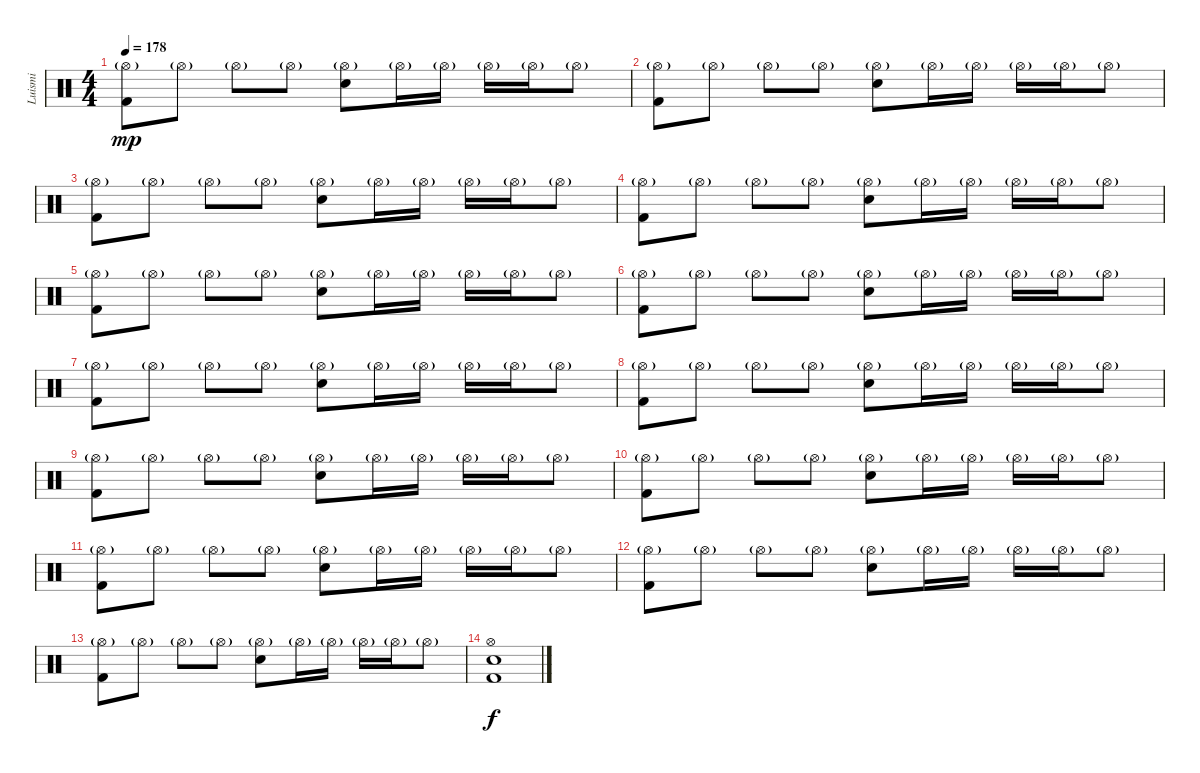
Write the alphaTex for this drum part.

\track ("Luismi" "Luismi") {instrument percussion}
\staff {score}
\articulation defaults
\ts (4 4)
\tempo 178
\clef neutral
\ks c
("Hi-Hat (open)"{g} "Kick (hit) 2").8{dy mp} "Hi-Hat (open)"{g}.8 "Hi-Hat (open)"{g}.8 "Hi-Hat (open)"{g}.8 ("Hi-Hat (open)"{g} "Snare (hit) 2").8 "Hi-Hat (open)"{g}.16 "Hi-Hat (open)"{g}.16 "Hi-Hat (open)"{g}.16 "Hi-Hat (open)"{g}.16 "Hi-Hat (open)"{g}.8 |
("Hi-Hat (open)"{g} "Kick (hit) 2").8 "Hi-Hat (open)"{g}.8 "Hi-Hat (open)"{g}.8 "Hi-Hat (open)"{g}.8 ("Hi-Hat (open)"{g} "Snare (hit) 2").8 "Hi-Hat (open)"{g}.16 "Hi-Hat (open)"{g}.16 "Hi-Hat (open)"{g}.16 "Hi-Hat (open)"{g}.16 "Hi-Hat (open)"{g}.8 |
("Hi-Hat (open)"{g} "Kick (hit) 2").8 "Hi-Hat (open)"{g}.8 "Hi-Hat (open)"{g}.8 "Hi-Hat (open)"{g}.8 ("Hi-Hat (open)"{g} "Snare (hit) 2").8 "Hi-Hat (open)"{g}.16 "Hi-Hat (open)"{g}.16 "Hi-Hat (open)"{g}.16 "Hi-Hat (open)"{g}.16 "Hi-Hat (open)"{g}.8 |
("Hi-Hat (open)"{g} "Kick (hit) 2").8 "Hi-Hat (open)"{g}.8 "Hi-Hat (open)"{g}.8 "Hi-Hat (open)"{g}.8 ("Hi-Hat (open)"{g} "Snare (hit) 2").8 "Hi-Hat (open)"{g}.16 "Hi-Hat (open)"{g}.16 "Hi-Hat (open)"{g}.16 "Hi-Hat (open)"{g}.16 "Hi-Hat (open)"{g}.8 |
("Hi-Hat (open)"{g} "Kick (hit) 2").8 "Hi-Hat (open)"{g}.8 "Hi-Hat (open)"{g}.8 "Hi-Hat (open)"{g}.8 ("Hi-Hat (open)"{g} "Snare (hit) 2").8 "Hi-Hat (open)"{g}.16 "Hi-Hat (open)"{g}.16 "Hi-Hat (open)"{g}.16 "Hi-Hat (open)"{g}.16 "Hi-Hat (open)"{g}.8 |
("Hi-Hat (open)"{g} "Kick (hit) 2").8 "Hi-Hat (open)"{g}.8 "Hi-Hat (open)"{g}.8 "Hi-Hat (open)"{g}.8 ("Hi-Hat (open)"{g} "Snare (hit) 2").8 "Hi-Hat (open)"{g}.16 "Hi-Hat (open)"{g}.16 "Hi-Hat (open)"{g}.16 "Hi-Hat (open)"{g}.16 "Hi-Hat (open)"{g}.8 |
("Hi-Hat (open)"{g} "Kick (hit) 2").8 "Hi-Hat (open)"{g}.8 "Hi-Hat (open)"{g}.8 "Hi-Hat (open)"{g}.8 ("Hi-Hat (open)"{g} "Snare (hit) 2").8 "Hi-Hat (open)"{g}.16 "Hi-Hat (open)"{g}.16 "Hi-Hat (open)"{g}.16 "Hi-Hat (open)"{g}.16 "Hi-Hat (open)"{g}.8 |
("Hi-Hat (open)"{g} "Kick (hit) 2").8 "Hi-Hat (open)"{g}.8 "Hi-Hat (open)"{g}.8 "Hi-Hat (open)"{g}.8 ("Hi-Hat (open)"{g} "Snare (hit) 2").8 "Hi-Hat (open)"{g}.16 "Hi-Hat (open)"{g}.16 "Hi-Hat (open)"{g}.16 "Hi-Hat (open)"{g}.16 "Hi-Hat (open)"{g}.8 |
("Hi-Hat (open)"{g} "Kick (hit) 2").8 "Hi-Hat (open)"{g}.8 "Hi-Hat (open)"{g}.8 "Hi-Hat (open)"{g}.8 ("Hi-Hat (open)"{g} "Snare (hit) 2").8 "Hi-Hat (open)"{g}.16 "Hi-Hat (open)"{g}.16 "Hi-Hat (open)"{g}.16 "Hi-Hat (open)"{g}.16 "Hi-Hat (open)"{g}.8 |
("Hi-Hat (open)"{g} "Kick (hit) 2").8 "Hi-Hat (open)"{g}.8 "Hi-Hat (open)"{g}.8 "Hi-Hat (open)"{g}.8 ("Hi-Hat (open)"{g} "Snare (hit) 2").8 "Hi-Hat (open)"{g}.16 "Hi-Hat (open)"{g}.16 "Hi-Hat (open)"{g}.16 "Hi-Hat (open)"{g}.16 "Hi-Hat (open)"{g}.8 |
("Hi-Hat (open)"{g} "Kick (hit) 2").8 "Hi-Hat (open)"{g}.8 "Hi-Hat (open)"{g}.8 "Hi-Hat (open)"{g}.8 ("Hi-Hat (open)"{g} "Snare (hit) 2").8 "Hi-Hat (open)"{g}.16 "Hi-Hat (open)"{g}.16 "Hi-Hat (open)"{g}.16 "Hi-Hat (open)"{g}.16 "Hi-Hat (open)"{g}.8 |
("Hi-Hat (open)"{g} "Kick (hit) 2").8 "Hi-Hat (open)"{g}.8 "Hi-Hat (open)"{g}.8 "Hi-Hat (open)"{g}.8 ("Hi-Hat (open)"{g} "Snare (hit) 2").8 "Hi-Hat (open)"{g}.16 "Hi-Hat (open)"{g}.16 "Hi-Hat (open)"{g}.16 "Hi-Hat (open)"{g}.16 "Hi-Hat (open)"{g}.8 |
("Hi-Hat (open)"{g} "Kick (hit) 2").8 "Hi-Hat (open)"{g}.8 "Hi-Hat (open)"{g}.8 "Hi-Hat (open)"{g}.8 ("Hi-Hat (open)"{g} "Snare (hit) 2").8 "Hi-Hat (open)"{g}.16 "Hi-Hat (open)"{g}.16 "Hi-Hat (open)"{g}.16 "Hi-Hat (open)"{g}.16 "Hi-Hat (open)"{g}.8 |
("Hi-Hat (open)" "Snare (hit) 2" "Kick (hit) 2").1{dy f}
